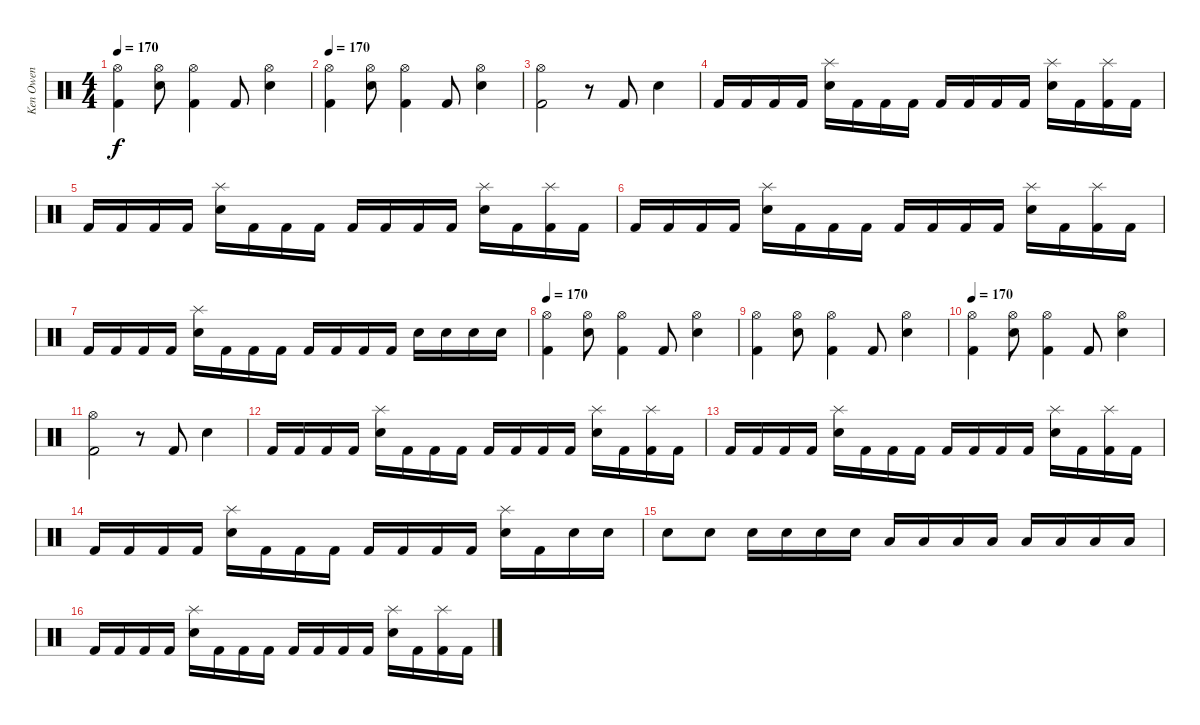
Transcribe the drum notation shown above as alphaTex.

\track ("Ken Owen" "Ken Owen") {instrument percussion}
\staff {score}
\articulation defaults
\ts (4 4)
\tempo 170
\clef neutral
\ks c
("Hi-Hat (open)" "Kick (hit) 2").4{dy f} ("Hi-Hat (open)" "Electric Snare (hit)").8 ("Hi-Hat (open)" "Kick (hit) 2").4 "Kick (hit) 2".8 ("Hi-Hat (open)" "Electric Snare (hit)").4 |
\tempo 160
\tempo 170
("Hi-Hat (open)" "Kick (hit) 2").4 ("Hi-Hat (open)" "Electric Snare (hit)").8 ("Hi-Hat (open)" "Kick (hit) 2").4 "Kick (hit) 2".8 ("Hi-Hat (open)" "Electric Snare (hit)").4 |
("Hi-Hat (open)" "Kick (hit) 2").2 r.8 "Kick (hit) 2".8 "Electric Snare (hit)".4 |
"Kick (hit) 2".16 "Kick (hit) 2".16 "Kick (hit) 2".16 "Kick (hit) 2".16 ("Splash (hit)" "Electric Snare (hit)").16 "Kick (hit) 2".16 "Kick (hit) 2".16 "Kick (hit) 2".16 "Kick (hit) 2".16 "Kick (hit) 2".16 "Kick (hit) 2".16 "Kick (hit) 2".16 ("Splash (hit)" "Electric Snare (hit)").16 "Kick (hit) 2".16 ("Splash (hit)" "Kick (hit) 2").16 "Kick (hit) 2".16 |
"Kick (hit) 2".16 "Kick (hit) 2".16 "Kick (hit) 2".16 "Kick (hit) 2".16 ("Splash (hit)" "Electric Snare (hit)").16 "Kick (hit) 2".16 "Kick (hit) 2".16 "Kick (hit) 2".16 "Kick (hit) 2".16 "Kick (hit) 2".16 "Kick (hit) 2".16 "Kick (hit) 2".16 ("Splash (hit)" "Electric Snare (hit)").16 "Kick (hit) 2".16 ("Splash (hit)" "Kick (hit) 2").16 "Kick (hit) 2".16 |
"Kick (hit) 2".16 "Kick (hit) 2".16 "Kick (hit) 2".16 "Kick (hit) 2".16 ("Splash (hit)" "Electric Snare (hit)").16 "Kick (hit) 2".16 "Kick (hit) 2".16 "Kick (hit) 2".16 "Kick (hit) 2".16 "Kick (hit) 2".16 "Kick (hit) 2".16 "Kick (hit) 2".16 ("Splash (hit)" "Electric Snare (hit)").16 "Kick (hit) 2".16 ("Splash (hit)" "Kick (hit) 2").16 "Kick (hit) 2".16 |
"Kick (hit) 2".16 "Kick (hit) 2".16 "Kick (hit) 2".16 "Kick (hit) 2".16 ("Splash (hit)" "Electric Snare (hit)").16 "Kick (hit) 2".16 "Kick (hit) 2".16 "Kick (hit) 2".16 "Kick (hit) 2".16 "Kick (hit) 2".16 "Kick (hit) 2".16 "Kick (hit) 2".16 "Electric Snare (hit)".16 "Electric Snare (hit)".16 "Electric Snare (hit)".16 "Electric Snare (hit)".16 |
\tempo 160
\tempo 170
("Hi-Hat (open)" "Kick (hit) 2").4 ("Hi-Hat (open)" "Electric Snare (hit)").8 ("Hi-Hat (open)" "Kick (hit) 2").4 "Kick (hit) 2".8 ("Hi-Hat (open)" "Electric Snare (hit)").4 |
("Hi-Hat (open)" "Kick (hit) 2").4 ("Hi-Hat (open)" "Electric Snare (hit)").8 ("Hi-Hat (open)" "Kick (hit) 2").4 "Kick (hit) 2".8 ("Hi-Hat (open)" "Electric Snare (hit)").4 |
\tempo 160
\tempo 170
("Hi-Hat (open)" "Kick (hit) 2").4 ("Hi-Hat (open)" "Electric Snare (hit)").8 ("Hi-Hat (open)" "Kick (hit) 2").4 "Kick (hit) 2".8 ("Hi-Hat (open)" "Electric Snare (hit)").4 |
("Hi-Hat (open)" "Kick (hit) 2").2 r.8 "Kick (hit) 2".8 "Electric Snare (hit)".4 |
"Kick (hit) 2".16 "Kick (hit) 2".16 "Kick (hit) 2".16 "Kick (hit) 2".16 ("Splash (hit)" "Electric Snare (hit)").16 "Kick (hit) 2".16 "Kick (hit) 2".16 "Kick (hit) 2".16 "Kick (hit) 2".16 "Kick (hit) 2".16 "Kick (hit) 2".16 "Kick (hit) 2".16 ("Splash (hit)" "Electric Snare (hit)").16 "Kick (hit) 2".16 ("Splash (hit)" "Kick (hit) 2").16 "Kick (hit) 2".16 |
"Kick (hit) 2".16 "Kick (hit) 2".16 "Kick (hit) 2".16 "Kick (hit) 2".16 ("Splash (hit)" "Electric Snare (hit)").16 "Kick (hit) 2".16 "Kick (hit) 2".16 "Kick (hit) 2".16 "Kick (hit) 2".16 "Kick (hit) 2".16 "Kick (hit) 2".16 "Kick (hit) 2".16 ("Splash (hit)" "Electric Snare (hit)").16 "Kick (hit) 2".16 ("Splash (hit)" "Kick (hit) 2").16 "Kick (hit) 2".16 |
"Kick (hit) 2".16 "Kick (hit) 2".16 "Kick (hit) 2".16 "Kick (hit) 2".16 ("Splash (hit)" "Electric Snare (hit)").16 "Kick (hit) 2".16 "Kick (hit) 2".16 "Kick (hit) 2".16 "Kick (hit) 2".16 "Kick (hit) 2".16 "Kick (hit) 2".16 "Kick (hit) 2".16 ("Splash (hit)" "Electric Snare (hit)").16 "Kick (hit) 2".16 "Electric Snare (hit)".16 "Electric Snare (hit)".16 |
"Electric Snare (hit)".8 "Electric Snare (hit)".8 "Electric Snare (hit)".16 "Electric Snare (hit)".16 "Electric Snare (hit)".16 "Electric Snare (hit)".16 "Low Floor Tom (hit)".16 "Low Floor Tom (hit)".16 "Low Floor Tom (hit)".16 "Low Floor Tom (hit)".16 "Low Floor Tom (hit)".16 "Low Floor Tom (hit)".16 "Low Floor Tom (hit)".16 "Low Floor Tom (hit)".16 |
"Kick (hit) 2".16 "Kick (hit) 2".16 "Kick (hit) 2".16 "Kick (hit) 2".16 ("Splash (hit)" "Electric Snare (hit)").16 "Kick (hit) 2".16 "Kick (hit) 2".16 "Kick (hit) 2".16 "Kick (hit) 2".16 "Kick (hit) 2".16 "Kick (hit) 2".16 "Kick (hit) 2".16 ("Splash (hit)" "Electric Snare (hit)").16 "Kick (hit) 2".16 ("Splash (hit)" "Kick (hit) 2").16 "Kick (hit) 2".16
